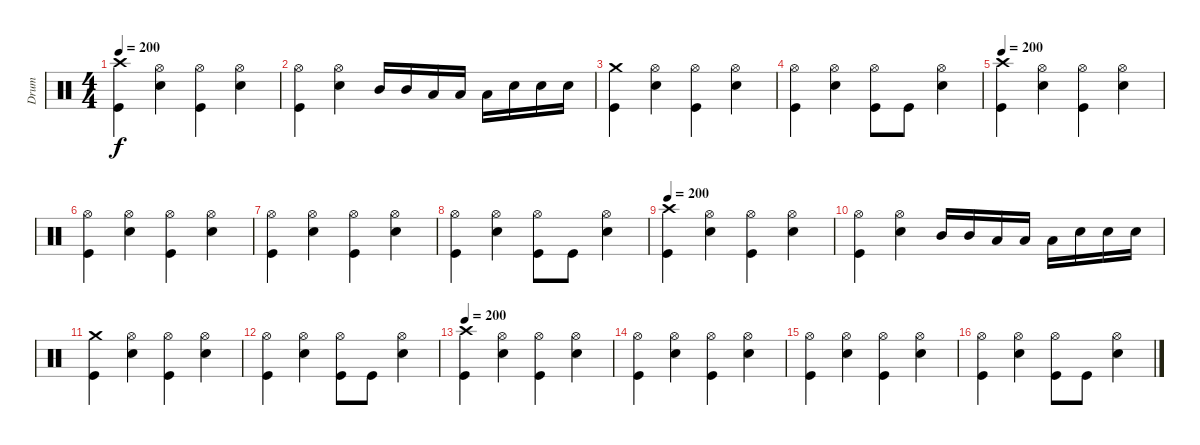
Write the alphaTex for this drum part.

\track ("Drum" "Drum") {instrument percussion}
\staff {score}
\articulation defaults
\ts (4 4)
\tempo 200
\clef neutral
\ks c
("Crash high (hit)" "Kick (hit)").4{dy f} ("Hi-Hat (open)" "Electric Snare (hit)").4 ("Hi-Hat (open)" "Kick (hit)").4 ("Hi-Hat (open)" "Electric Snare (hit)").4 |
("Hi-Hat (open)" "Kick (hit)").4 ("Hi-Hat (open)" "Electric Snare (hit)").4 "Mid Tom (hit)".16 "Mid Tom (hit)".16 "Low Tom (hit)".16 "Low Tom (hit)".16 "Low Tom (hit)".16 "Electric Snare (hit)".16 "Electric Snare (hit)".16 "Electric Snare (hit)".16 |
("Crash medium (hit)" "Kick (hit)").4 ("Hi-Hat (open)" "Electric Snare (hit)").4 ("Hi-Hat (open)" "Kick (hit)").4 ("Hi-Hat (open)" "Electric Snare (hit)").4 |
("Hi-Hat (open)" "Kick (hit)").4 ("Hi-Hat (open)" "Electric Snare (hit)").4 ("Hi-Hat (open)" "Kick (hit)").8 "Kick (hit)".8 ("Hi-Hat (open)" "Electric Snare (hit)").4 |
\tempo 200
("Crash high (hit)" "Kick (hit)").4 ("Hi-Hat (open)" "Electric Snare (hit)").4 ("Hi-Hat (open)" "Kick (hit)").4 ("Hi-Hat (open)" "Electric Snare (hit)").4 |
("Hi-Hat (open)" "Kick (hit)").4 ("Hi-Hat (open)" "Electric Snare (hit)").4 ("Hi-Hat (open)" "Kick (hit)").4 ("Hi-Hat (open)" "Electric Snare (hit)").4 |
("Hi-Hat (open)" "Kick (hit)").4 ("Hi-Hat (open)" "Electric Snare (hit)").4 ("Hi-Hat (open)" "Kick (hit)").4 ("Hi-Hat (open)" "Electric Snare (hit)").4 |
("Hi-Hat (open)" "Kick (hit)").4 ("Hi-Hat (open)" "Electric Snare (hit)").4 ("Hi-Hat (open)" "Kick (hit)").8 "Kick (hit)".8 ("Hi-Hat (open)" "Electric Snare (hit)").4 |
\tempo 200
("Crash high (hit)" "Kick (hit)").4 ("Hi-Hat (open)" "Electric Snare (hit)").4 ("Hi-Hat (open)" "Kick (hit)").4 ("Hi-Hat (open)" "Electric Snare (hit)").4 |
("Hi-Hat (open)" "Kick (hit)").4 ("Hi-Hat (open)" "Electric Snare (hit)").4 "Mid Tom (hit)".16 "Mid Tom (hit)".16 "Low Tom (hit)".16 "Low Tom (hit)".16 "Low Tom (hit)".16 "Electric Snare (hit)".16 "Electric Snare (hit)".16 "Electric Snare (hit)".16 |
("Crash medium (hit)" "Kick (hit)").4 ("Hi-Hat (open)" "Electric Snare (hit)").4 ("Hi-Hat (open)" "Kick (hit)").4 ("Hi-Hat (open)" "Electric Snare (hit)").4 |
("Hi-Hat (open)" "Kick (hit)").4 ("Hi-Hat (open)" "Electric Snare (hit)").4 ("Hi-Hat (open)" "Kick (hit)").8 "Kick (hit)".8 ("Hi-Hat (open)" "Electric Snare (hit)").4 |
\tempo 200
("Crash high (hit)" "Kick (hit)").4 ("Hi-Hat (open)" "Electric Snare (hit)").4 ("Hi-Hat (open)" "Kick (hit)").4 ("Hi-Hat (open)" "Electric Snare (hit)").4 |
("Hi-Hat (open)" "Kick (hit)").4 ("Hi-Hat (open)" "Electric Snare (hit)").4 ("Hi-Hat (open)" "Kick (hit)").4 ("Hi-Hat (open)" "Electric Snare (hit)").4 |
("Hi-Hat (open)" "Kick (hit)").4 ("Hi-Hat (open)" "Electric Snare (hit)").4 ("Hi-Hat (open)" "Kick (hit)").4 ("Hi-Hat (open)" "Electric Snare (hit)").4 |
("Hi-Hat (open)" "Kick (hit)").4 ("Hi-Hat (open)" "Electric Snare (hit)").4 ("Hi-Hat (open)" "Kick (hit)").8 "Kick (hit)".8 ("Hi-Hat (open)" "Electric Snare (hit)").4
